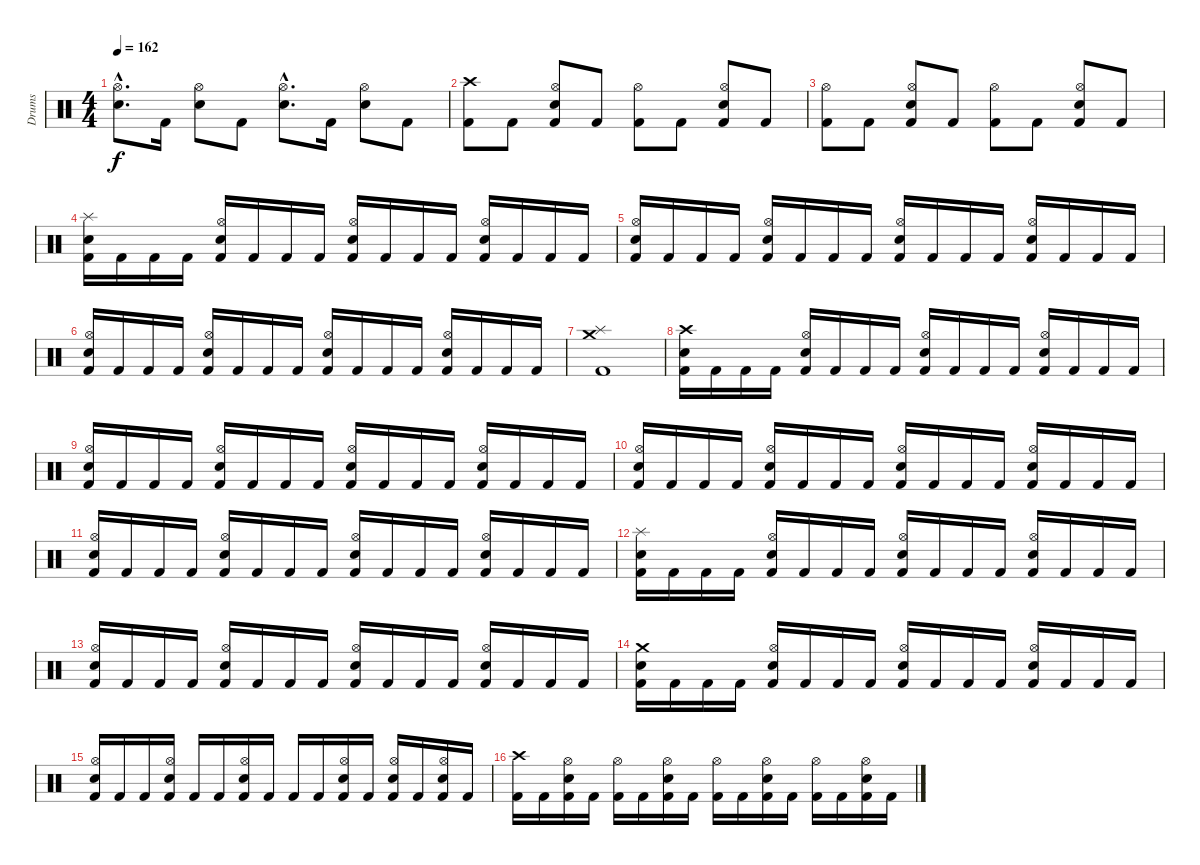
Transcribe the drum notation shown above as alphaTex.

\track ("Drums" "Drums") {instrument percussion}
\staff {score}
\articulation defaults
\ts (4 4)
\tempo 162
\clef neutral
\ks c
("Electric Snare (hit)"{hac} "Hi-Hat (open)"{hac}).8{d dy f} "Kick (hit) 2".16 ("Electric Snare (hit)" "Hi-Hat (open)").8 "Kick (hit) 2".8 ("Electric Snare (hit)"{hac} "Hi-Hat (open)"{hac}).8{d} "Kick (hit) 2".16 ("Electric Snare (hit)" "Hi-Hat (open)").8 "Kick (hit) 2".8 |
\section ("" "")
("Kick (hit) 2" "Crash high (hit)").8 "Kick (hit) 2".8 ("Kick (hit) 2" "Electric Snare (hit)" "Hi-Hat (open)").8 "Kick (hit) 2".8 ("Kick (hit) 2" "Hi-Hat (open)").8 "Kick (hit) 2".8 ("Kick (hit) 2" "Electric Snare (hit)" "Hi-Hat (open)").8 "Kick (hit) 2".8 |
("Kick (hit) 2" "Hi-Hat (open)").8 "Kick (hit) 2".8 ("Kick (hit) 2" "Electric Snare (hit)" "Hi-Hat (open)").8 "Kick (hit) 2".8 ("Kick (hit) 2" "Hi-Hat (open)").8 "Kick (hit) 2".8 ("Kick (hit) 2" "Electric Snare (hit)" "Hi-Hat (open)").8 "Kick (hit) 2".8 |
("Kick (hit) 2" "Electric Snare (hit)" "Splash (hit)").16 "Kick (hit) 2".16 "Kick (hit) 2".16 "Kick (hit) 2".16 ("Kick (hit) 2" "Electric Snare (hit)" "Hi-Hat (open)").16 "Kick (hit) 2".16 "Kick (hit) 2".16 "Kick (hit) 2".16 ("Kick (hit) 2" "Electric Snare (hit)" "Hi-Hat (open)").16 "Kick (hit) 2".16 "Kick (hit) 2".16 "Kick (hit) 2".16 ("Kick (hit) 2" "Electric Snare (hit)" "Hi-Hat (open)").16 "Kick (hit) 2".16 "Kick (hit) 2".16 "Kick (hit) 2".16 |
("Kick (hit) 2" "Electric Snare (hit)" "Hi-Hat (open)").16 "Kick (hit) 2".16 "Kick (hit) 2".16 "Kick (hit) 2".16 ("Kick (hit) 2" "Electric Snare (hit)" "Hi-Hat (open)").16 "Kick (hit) 2".16 "Kick (hit) 2".16 "Kick (hit) 2".16 ("Kick (hit) 2" "Electric Snare (hit)" "Hi-Hat (open)").16 "Kick (hit) 2".16 "Kick (hit) 2".16 "Kick (hit) 2".16 ("Kick (hit) 2" "Electric Snare (hit)" "Hi-Hat (open)").16 "Kick (hit) 2".16 "Kick (hit) 2".16 "Kick (hit) 2".16 |
("Kick (hit) 2" "Electric Snare (hit)" "Hi-Hat (open)").16 "Kick (hit) 2".16 "Kick (hit) 2".16 "Kick (hit) 2".16 ("Kick (hit) 2" "Electric Snare (hit)" "Hi-Hat (open)").16 "Kick (hit) 2".16 "Kick (hit) 2".16 "Kick (hit) 2".16 ("Kick (hit) 2" "Electric Snare (hit)" "Hi-Hat (open)").16 "Kick (hit) 2".16 "Kick (hit) 2".16 "Kick (hit) 2".16 ("Kick (hit) 2" "Electric Snare (hit)" "Hi-Hat (open)").16 "Kick (hit) 2".16 "Kick (hit) 2".16 "Kick (hit) 2".16 |
("Kick (hit) 2" "Splash (hit)" "Crash medium (hit)").1 |
\section ("" "")
("Kick (hit) 2" "Electric Snare (hit)" "Crash high (hit)").16 "Kick (hit) 2".16 "Kick (hit) 2".16 "Kick (hit) 2".16 ("Kick (hit) 2" "Electric Snare (hit)" "Hi-Hat (open)").16 "Kick (hit) 2".16 "Kick (hit) 2".16 "Kick (hit) 2".16 ("Kick (hit) 2" "Electric Snare (hit)" "Hi-Hat (open)").16 "Kick (hit) 2".16 "Kick (hit) 2".16 "Kick (hit) 2".16 ("Kick (hit) 2" "Electric Snare (hit)" "Hi-Hat (open)").16 "Kick (hit) 2".16 "Kick (hit) 2".16 "Kick (hit) 2".16 |
("Kick (hit) 2" "Electric Snare (hit)" "Hi-Hat (open)").16 "Kick (hit) 2".16 "Kick (hit) 2".16 "Kick (hit) 2".16 ("Kick (hit) 2" "Electric Snare (hit)" "Hi-Hat (open)").16 "Kick (hit) 2".16 "Kick (hit) 2".16 "Kick (hit) 2".16 ("Kick (hit) 2" "Electric Snare (hit)" "Hi-Hat (open)").16 "Kick (hit) 2".16 "Kick (hit) 2".16 "Kick (hit) 2".16 ("Kick (hit) 2" "Electric Snare (hit)" "Hi-Hat (open)").16 "Kick (hit) 2".16 "Kick (hit) 2".16 "Kick (hit) 2".16 |
("Kick (hit) 2" "Electric Snare (hit)" "Hi-Hat (open)").16 "Kick (hit) 2".16 "Kick (hit) 2".16 "Kick (hit) 2".16 ("Kick (hit) 2" "Electric Snare (hit)" "Hi-Hat (open)").16 "Kick (hit) 2".16 "Kick (hit) 2".16 "Kick (hit) 2".16 ("Kick (hit) 2" "Electric Snare (hit)" "Hi-Hat (open)").16 "Kick (hit) 2".16 "Kick (hit) 2".16 "Kick (hit) 2".16 ("Kick (hit) 2" "Electric Snare (hit)" "Hi-Hat (open)").16 "Kick (hit) 2".16 "Kick (hit) 2".16 "Kick (hit) 2".16 |
("Kick (hit) 2" "Electric Snare (hit)" "Hi-Hat (open)").16 "Kick (hit) 2".16 "Kick (hit) 2".16 "Kick (hit) 2".16 ("Kick (hit) 2" "Electric Snare (hit)" "Hi-Hat (open)").16 "Kick (hit) 2".16 "Kick (hit) 2".16 "Kick (hit) 2".16 ("Kick (hit) 2" "Electric Snare (hit)" "Hi-Hat (open)").16 "Kick (hit) 2".16 "Kick (hit) 2".16 "Kick (hit) 2".16 ("Kick (hit) 2" "Electric Snare (hit)" "Hi-Hat (open)").16 "Kick (hit) 2".16 "Kick (hit) 2".16 "Kick (hit) 2".16 |
("Kick (hit) 2" "Electric Snare (hit)" "Splash (hit)").16 "Kick (hit) 2".16 "Kick (hit) 2".16 "Kick (hit) 2".16 ("Kick (hit) 2" "Electric Snare (hit)" "Hi-Hat (open)").16 "Kick (hit) 2".16 "Kick (hit) 2".16 "Kick (hit) 2".16 ("Kick (hit) 2" "Electric Snare (hit)" "Hi-Hat (open)").16 "Kick (hit) 2".16 "Kick (hit) 2".16 "Kick (hit) 2".16 ("Kick (hit) 2" "Electric Snare (hit)" "Hi-Hat (open)").16 "Kick (hit) 2".16 "Kick (hit) 2".16 "Kick (hit) 2".16 |
("Kick (hit) 2" "Electric Snare (hit)" "Hi-Hat (open)").16 "Kick (hit) 2".16 "Kick (hit) 2".16 "Kick (hit) 2".16 ("Kick (hit) 2" "Electric Snare (hit)" "Hi-Hat (open)").16 "Kick (hit) 2".16 "Kick (hit) 2".16 "Kick (hit) 2".16 ("Kick (hit) 2" "Electric Snare (hit)" "Hi-Hat (open)").16 "Kick (hit) 2".16 "Kick (hit) 2".16 "Kick (hit) 2".16 ("Kick (hit) 2" "Electric Snare (hit)" "Hi-Hat (open)").16 "Kick (hit) 2".16 "Kick (hit) 2".16 "Kick (hit) 2".16 |
("Kick (hit) 2" "Electric Snare (hit)" "Crash medium (hit)").16 "Kick (hit) 2".16 "Kick (hit) 2".16 "Kick (hit) 2".16 ("Kick (hit) 2" "Electric Snare (hit)" "Hi-Hat (open)").16 "Kick (hit) 2".16 "Kick (hit) 2".16 "Kick (hit) 2".16 ("Kick (hit) 2" "Electric Snare (hit)" "Hi-Hat (open)").16 "Kick (hit) 2".16 "Kick (hit) 2".16 "Kick (hit) 2".16 ("Kick (hit) 2" "Electric Snare (hit)" "Hi-Hat (open)").16 "Kick (hit) 2".16 "Kick (hit) 2".16 "Kick (hit) 2".16 |
("Kick (hit) 2" "Electric Snare (hit)" "Hi-Hat (open)").16 "Kick (hit) 2".16 "Kick (hit) 2".16 ("Kick (hit) 2" "Electric Snare (hit)" "Hi-Hat (open)").16 "Kick (hit) 2".16 "Kick (hit) 2".16 ("Kick (hit) 2" "Electric Snare (hit)" "Hi-Hat (open)").16 "Kick (hit) 2".16 "Kick (hit) 2".16 "Kick (hit) 2".16 ("Kick (hit) 2" "Electric Snare (hit)" "Hi-Hat (open)").16 "Kick (hit) 2".16 ("Kick (hit) 2" "Electric Snare (hit)" "Hi-Hat (open)").16 "Kick (hit) 2".16 ("Kick (hit) 2" "Electric Snare (hit)" "Hi-Hat (open)").16 "Kick (hit) 2".16 |
\section ("" "")
("Kick (hit) 2" "Crash high (hit)").16 "Kick (hit) 2".16 ("Kick (hit) 2" "Electric Snare (hit)" "Hi-Hat (open)").16 "Kick (hit) 2".16 ("Kick (hit) 2" "Hi-Hat (open)").16 "Kick (hit) 2".16 ("Kick (hit) 2" "Electric Snare (hit)" "Hi-Hat (open)").16 "Kick (hit) 2".16 ("Kick (hit) 2" "Hi-Hat (open)").16 "Kick (hit) 2".16 ("Kick (hit) 2" "Electric Snare (hit)" "Hi-Hat (open)").16 "Kick (hit) 2".16 ("Kick (hit) 2" "Hi-Hat (open)").16 "Kick (hit) 2".16 ("Kick (hit) 2" "Electric Snare (hit)" "Hi-Hat (open)").16 "Kick (hit) 2".16
